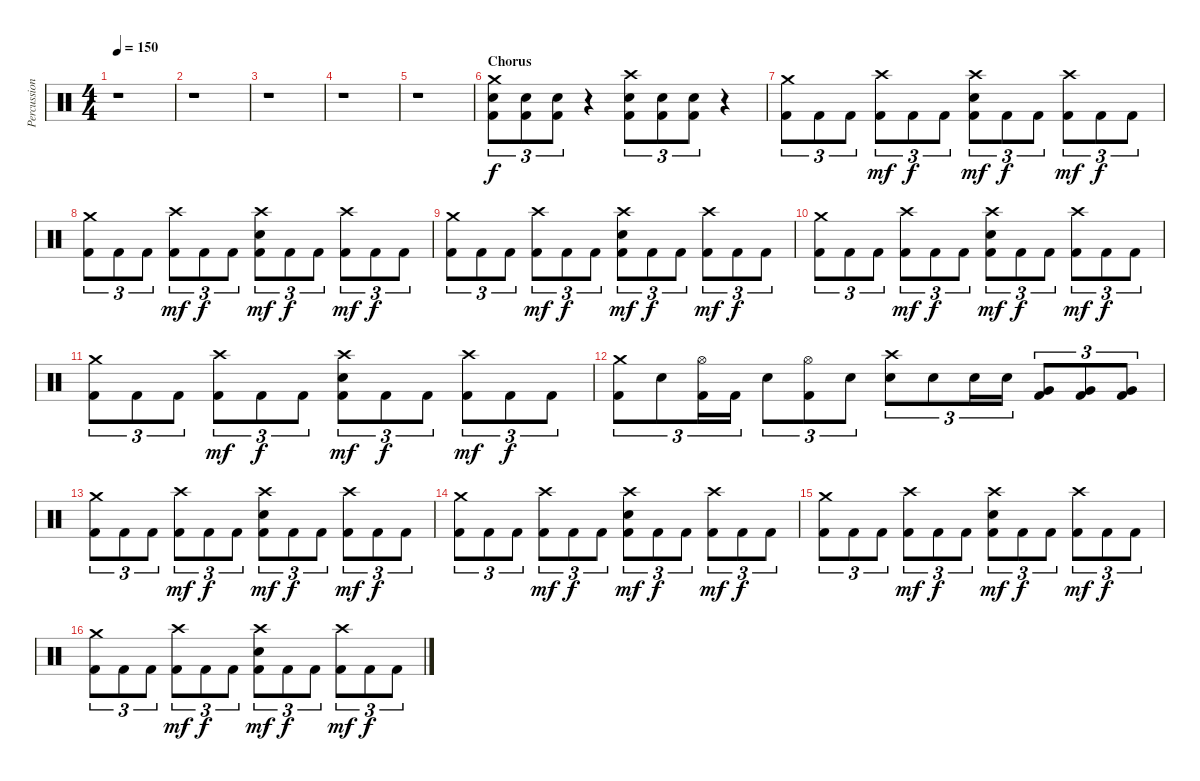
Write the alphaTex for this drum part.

\track ("Percussion" "Percussion") {instrument percussion}
\staff {score}
\articulation defaults
\ts (4 4)
\tempo 150
\clef neutral
\ks c
r.1{dy f} |
r.1 |
r.1 |
r.1 |
r.1 |
\section ("" "Chorus")
("Kick (hit) 2" "Electric Snare (hit)" "Crash medium (hit)").8{tu (3 2)} ("Kick (hit) 2" "Electric Snare (hit)").8{tu (3 2)} ("Kick (hit) 2" "Electric Snare (hit)").8{tu (3 2)} r.4 ("Kick (hit) 2" "Electric Snare (hit)" "Crash high (hit)").8{tu (3 2)} ("Kick (hit) 2" "Electric Snare (hit)").8{tu (3 2)} ("Kick (hit) 2" "Electric Snare (hit)").8{tu (3 2)} r.4 |
("Kick (hit) 2" "Crash medium (hit)").8{tu (3 2)} "Kick (hit) 2".8{tu (3 2)} "Kick (hit) 2".8{tu (3 2)} ("Kick (hit) 2" "Crash high (hit)").8{tu (3 2) dy mf} "Kick (hit) 2".8{tu (3 2) dy f} "Kick (hit) 2".8{tu (3 2)} ("Kick (hit) 2" "Electric Snare (hit)" "Crash high (hit)").8{tu (3 2) dy mf} "Kick (hit) 2".8{tu (3 2) dy f} "Kick (hit) 2".8{tu (3 2)} ("Kick (hit) 2" "Crash high (hit)").8{tu (3 2) dy mf} "Kick (hit) 2".8{tu (3 2) dy f} "Kick (hit) 2".8{tu (3 2)} |
("Kick (hit) 2" "Crash medium (hit)").8{tu (3 2)} "Kick (hit) 2".8{tu (3 2)} "Kick (hit) 2".8{tu (3 2)} ("Kick (hit) 2" "Crash high (hit)").8{tu (3 2) dy mf} "Kick (hit) 2".8{tu (3 2) dy f} "Kick (hit) 2".8{tu (3 2)} ("Kick (hit) 2" "Electric Snare (hit)" "Crash high (hit)").8{tu (3 2) dy mf} "Kick (hit) 2".8{tu (3 2) dy f} "Kick (hit) 2".8{tu (3 2)} ("Kick (hit) 2" "Crash high (hit)").8{tu (3 2) dy mf} "Kick (hit) 2".8{tu (3 2) dy f} "Kick (hit) 2".8{tu (3 2)} |
("Kick (hit) 2" "Crash medium (hit)").8{tu (3 2)} "Kick (hit) 2".8{tu (3 2)} "Kick (hit) 2".8{tu (3 2)} ("Kick (hit) 2" "Crash high (hit)").8{tu (3 2) dy mf} "Kick (hit) 2".8{tu (3 2) dy f} "Kick (hit) 2".8{tu (3 2)} ("Kick (hit) 2" "Electric Snare (hit)" "Crash high (hit)").8{tu (3 2) dy mf} "Kick (hit) 2".8{tu (3 2) dy f} "Kick (hit) 2".8{tu (3 2)} ("Kick (hit) 2" "Crash high (hit)").8{tu (3 2) dy mf} "Kick (hit) 2".8{tu (3 2) dy f} "Kick (hit) 2".8{tu (3 2)} |
("Kick (hit) 2" "Crash medium (hit)").8{tu (3 2)} "Kick (hit) 2".8{tu (3 2)} "Kick (hit) 2".8{tu (3 2)} ("Kick (hit) 2" "Crash high (hit)").8{tu (3 2) dy mf} "Kick (hit) 2".8{tu (3 2) dy f} "Kick (hit) 2".8{tu (3 2)} ("Kick (hit) 2" "Electric Snare (hit)" "Crash high (hit)").8{tu (3 2) dy mf} "Kick (hit) 2".8{tu (3 2) dy f} "Kick (hit) 2".8{tu (3 2)} ("Kick (hit) 2" "Crash high (hit)").8{tu (3 2) dy mf} "Kick (hit) 2".8{tu (3 2) dy f} "Kick (hit) 2".8{tu (3 2)} |
("Kick (hit) 2" "Crash medium (hit)").8{tu (3 2)} "Kick (hit) 2".8{tu (3 2)} "Kick (hit) 2".8{tu (3 2)} ("Kick (hit) 2" "Crash high (hit)").8{tu (3 2) dy mf} "Kick (hit) 2".8{tu (3 2) dy f} "Kick (hit) 2".8{tu (3 2)} ("Kick (hit) 2" "Electric Snare (hit)" "Crash high (hit)").8{tu (3 2) dy mf} "Kick (hit) 2".8{tu (3 2) dy f} "Kick (hit) 2".8{tu (3 2)} ("Kick (hit) 2" "Crash high (hit)").8{tu (3 2) dy mf} "Kick (hit) 2".8{tu (3 2) dy f} "Kick (hit) 2".8{tu (3 2)} |
("Kick (hit) 2" "Crash medium (hit)").8{tu (3 2)} "Electric Snare (hit)".8{tu (3 2)} ("Kick (hit) 2" "Hi-Hat (open)").16{tu (3 2)} "Kick (hit) 2".16{tu (3 2)} "Electric Snare (hit)".8{tu (3 2)} ("Kick (hit) 2" "Hi-Hat (open)").8{tu (3 2)} "Electric Snare (hit)".8{tu (3 2)} ("Electric Snare (hit)" "Crash high (hit)").8{tu (3 2)} "Electric Snare (hit)".8{tu (3 2)} "Electric Snare (hit)".16{tu (3 2)} "Electric Snare (hit)".16{tu (3 2)} ("Kick (hit) 2" "Very Low Tom (hit)").8{tu (3 2)} ("Kick (hit) 2" "Very Low Tom (hit)").8{tu (3 2)} ("Kick (hit) 2" "Very Low Tom (hit)").8{tu (3 2)} |
("Kick (hit) 2" "Crash medium (hit)").8{tu (3 2)} "Kick (hit) 2".8{tu (3 2)} "Kick (hit) 2".8{tu (3 2)} ("Kick (hit) 2" "Crash high (hit)").8{tu (3 2) dy mf} "Kick (hit) 2".8{tu (3 2) dy f} "Kick (hit) 2".8{tu (3 2)} ("Kick (hit) 2" "Electric Snare (hit)" "Crash high (hit)").8{tu (3 2) dy mf} "Kick (hit) 2".8{tu (3 2) dy f} "Kick (hit) 2".8{tu (3 2)} ("Kick (hit) 2" "Crash high (hit)").8{tu (3 2) dy mf} "Kick (hit) 2".8{tu (3 2) dy f} "Kick (hit) 2".8{tu (3 2)} |
("Kick (hit) 2" "Crash medium (hit)").8{tu (3 2)} "Kick (hit) 2".8{tu (3 2)} "Kick (hit) 2".8{tu (3 2)} ("Kick (hit) 2" "Crash high (hit)").8{tu (3 2) dy mf} "Kick (hit) 2".8{tu (3 2) dy f} "Kick (hit) 2".8{tu (3 2)} ("Kick (hit) 2" "Electric Snare (hit)" "Crash high (hit)").8{tu (3 2) dy mf} "Kick (hit) 2".8{tu (3 2) dy f} "Kick (hit) 2".8{tu (3 2)} ("Kick (hit) 2" "Crash high (hit)").8{tu (3 2) dy mf} "Kick (hit) 2".8{tu (3 2) dy f} "Kick (hit) 2".8{tu (3 2)} |
("Kick (hit) 2" "Crash medium (hit)").8{tu (3 2)} "Kick (hit) 2".8{tu (3 2)} "Kick (hit) 2".8{tu (3 2)} ("Kick (hit) 2" "Crash high (hit)").8{tu (3 2) dy mf} "Kick (hit) 2".8{tu (3 2) dy f} "Kick (hit) 2".8{tu (3 2)} ("Kick (hit) 2" "Electric Snare (hit)" "Crash high (hit)").8{tu (3 2) dy mf} "Kick (hit) 2".8{tu (3 2) dy f} "Kick (hit) 2".8{tu (3 2)} ("Kick (hit) 2" "Crash high (hit)").8{tu (3 2) dy mf} "Kick (hit) 2".8{tu (3 2) dy f} "Kick (hit) 2".8{tu (3 2)} |
("Kick (hit) 2" "Crash medium (hit)").8{tu (3 2)} "Kick (hit) 2".8{tu (3 2)} "Kick (hit) 2".8{tu (3 2)} ("Kick (hit) 2" "Crash high (hit)").8{tu (3 2) dy mf} "Kick (hit) 2".8{tu (3 2) dy f} "Kick (hit) 2".8{tu (3 2)} ("Kick (hit) 2" "Electric Snare (hit)" "Crash high (hit)").8{tu (3 2) dy mf} "Kick (hit) 2".8{tu (3 2) dy f} "Kick (hit) 2".8{tu (3 2)} ("Kick (hit) 2" "Crash high (hit)").8{tu (3 2) dy mf} "Kick (hit) 2".8{tu (3 2) dy f} "Kick (hit) 2".8{tu (3 2)}
